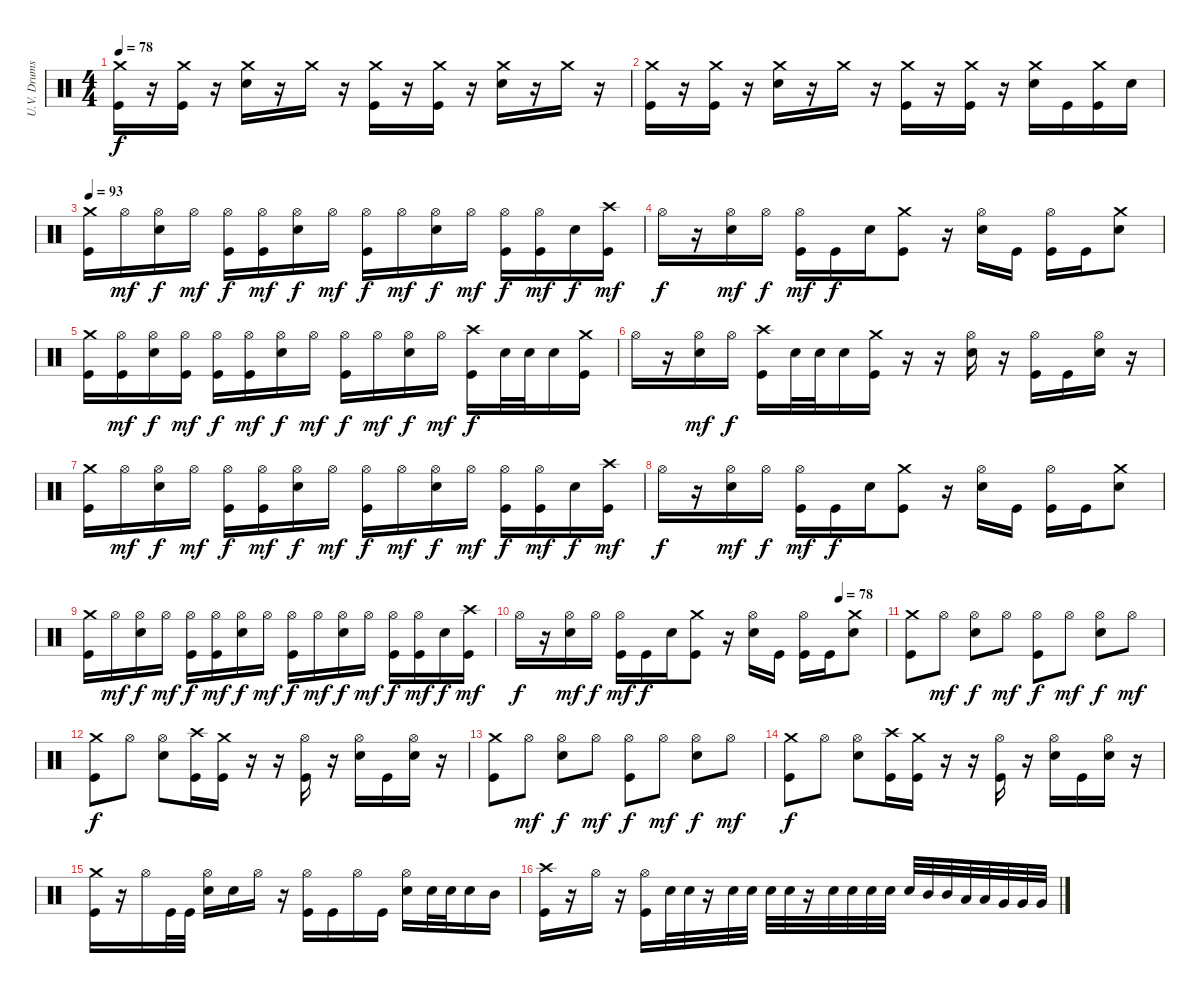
\track ("U.V. Drums" "U.V. Drums") {instrument percussion}
\staff {score}
\articulation defaults
\ts (4 4)
\tempo 78
\clef neutral
\ks c
("Crash medium (hit)" "Kick (hit)").16{dy f} r.16 ("Crash medium (hit)" "Kick (hit)").16 r.16 ("Crash medium (hit)" "Electric Snare (hit)").16 r.16 "Crash medium (hit)".16 r.16 ("Crash medium (hit)" "Kick (hit)").16 r.16 ("Crash medium (hit)" "Kick (hit)").16 r.16 ("Crash medium (hit)" "Electric Snare (hit)").16 r.16 "Crash medium (hit)".16 r.16 |
("Crash medium (hit)" "Kick (hit)").16 r.16 ("Crash medium (hit)" "Kick (hit)").16 r.16 ("Crash medium (hit)" "Electric Snare (hit)").16 r.16 "Crash medium (hit)".16 r.16 ("Crash medium (hit)" "Kick (hit)").16 r.16 ("Crash medium (hit)" "Kick (hit)").16 r.16 ("Crash medium (hit)" "Electric Snare (hit)").16 "Kick (hit)".16 ("Crash medium (hit)" "Kick (hit)").16 "Electric Snare (hit)".16 |
\tempo 93
("Crash medium (hit)" "Kick (hit)").16 "Hi-Hat (open)".16{dy mf} ("Hi-Hat (open)" "Electric Snare (hit)").16{dy f} "Hi-Hat (open)".16{dy mf} ("Hi-Hat (open)" "Kick (hit)").16{dy f} ("Hi-Hat (open)" "Kick (hit)").16{dy mf} ("Hi-Hat (open)" "Electric Snare (hit)").16{dy f} "Hi-Hat (open)".16{dy mf} ("Hi-Hat (open)" "Kick (hit)").16{dy f} "Hi-Hat (open)".16{dy mf} ("Hi-Hat (open)" "Electric Snare (hit)").16{dy f} "Hi-Hat (open)".16{dy mf} ("Hi-Hat (open)" "Kick (hit)").16{dy f} ("Hi-Hat (open)" "Kick (hit)").16{dy mf} "Electric Snare (hit)".16{dy f} ("Crash high (hit)" "Kick (hit)").16{dy mf} |
"Hi-Hat (open)".16{dy f} r.16 ("Hi-Hat (open)" "Electric Snare (hit)").16{dy mf} "Hi-Hat (open)".16{dy f} ("Hi-Hat (open)" "Kick (hit)").16{dy mf} "Kick (hit)".16{dy f} "Electric Snare (hit)".16 ("Crash medium (hit)" "Kick (hit)").8 r.16 ("Hi-Hat (open)" "Electric Snare (hit)").16 "Kick (hit)".16 ("Hi-Hat (open)" "Kick (hit)").16 "Kick (hit)".16 ("Crash medium (hit)" "Electric Snare (hit)").8 |
("Crash medium (hit)" "Kick (hit)").16 ("Hi-Hat (open)" "Kick (hit)").16{dy mf} ("Hi-Hat (open)" "Electric Snare (hit)").16{dy f} ("Hi-Hat (open)" "Kick (hit)").16{dy mf} ("Hi-Hat (open)" "Kick (hit)").16{dy f} ("Hi-Hat (open)" "Kick (hit)").16{dy mf} ("Hi-Hat (open)" "Electric Snare (hit)").16{dy f} "Hi-Hat (open)".16{dy mf} ("Hi-Hat (open)" "Kick (hit)").16{dy f} "Hi-Hat (open)".16{dy mf} ("Hi-Hat (open)" "Electric Snare (hit)").16{dy f} "Hi-Hat (open)".16{dy mf} ("Crash high (hit)" "Kick (hit)").16{dy f} "Electric Snare (hit)".32 "Electric Snare (hit)".32 "Electric Snare (hit)".16 ("Crash medium (hit)" "Kick (hit)").16 |
"Hi-Hat (open)".16 r.16 ("Hi-Hat (open)" "Electric Snare (hit)").16{dy mf} "Hi-Hat (open)".16{dy f} ("Crash high (hit)" "Kick (hit)").16 "Electric Snare (hit)".32 "Electric Snare (hit)".32 "Electric Snare (hit)".16 ("Crash medium (hit)" "Kick (hit)").16 r.16 r.16 ("Hi-Hat (open)" "Electric Snare (hit)").16 r.16 ("Hi-Hat (open)" "Kick (hit)").16 "Kick (hit)".16 ("Hi-Hat (open)" "Electric Snare (hit)").16 r.16 |
("Crash medium (hit)" "Kick (hit)").16 "Hi-Hat (open)".16{dy mf} ("Hi-Hat (open)" "Electric Snare (hit)").16{dy f} "Hi-Hat (open)".16{dy mf} ("Hi-Hat (open)" "Kick (hit)").16{dy f} ("Hi-Hat (open)" "Kick (hit)").16{dy mf} ("Hi-Hat (open)" "Electric Snare (hit)").16{dy f} "Hi-Hat (open)".16{dy mf} ("Hi-Hat (open)" "Kick (hit)").16{dy f} "Hi-Hat (open)".16{dy mf} ("Hi-Hat (open)" "Electric Snare (hit)").16{dy f} "Hi-Hat (open)".16{dy mf} ("Hi-Hat (open)" "Kick (hit)").16{dy f} ("Hi-Hat (open)" "Kick (hit)").16{dy mf} "Electric Snare (hit)".16{dy f} ("Crash high (hit)" "Kick (hit)").16{dy mf} |
"Hi-Hat (open)".16{dy f} r.16 ("Hi-Hat (open)" "Electric Snare (hit)").16{dy mf} "Hi-Hat (open)".16{dy f} ("Hi-Hat (open)" "Kick (hit)").16{dy mf} "Kick (hit)".16{dy f} "Electric Snare (hit)".16 ("Crash medium (hit)" "Kick (hit)").8 r.16 ("Hi-Hat (open)" "Electric Snare (hit)").16 "Kick (hit)".16 ("Hi-Hat (open)" "Kick (hit)").16 "Kick (hit)".16 ("Crash medium (hit)" "Electric Snare (hit)").8 |
("Crash medium (hit)" "Kick (hit)").16 "Hi-Hat (open)".16{dy mf} ("Hi-Hat (open)" "Electric Snare (hit)").16{dy f} "Hi-Hat (open)".16{dy mf} ("Hi-Hat (open)" "Kick (hit)").16{dy f} ("Hi-Hat (open)" "Kick (hit)").16{dy mf} ("Hi-Hat (open)" "Electric Snare (hit)").16{dy f} "Hi-Hat (open)".16{dy mf} ("Hi-Hat (open)" "Kick (hit)").16{dy f} "Hi-Hat (open)".16{dy mf} ("Hi-Hat (open)" "Electric Snare (hit)").16{dy f} "Hi-Hat (open)".16{dy mf} ("Hi-Hat (open)" "Kick (hit)").16{dy f} ("Hi-Hat (open)" "Kick (hit)").16{dy mf} "Electric Snare (hit)".16{dy f} ("Crash high (hit)" "Kick (hit)").16{dy mf} |
\tempo (78 0.875)
"Hi-Hat (open)".16{dy f} r.16 ("Hi-Hat (open)" "Electric Snare (hit)").16{dy mf} "Hi-Hat (open)".16{dy f} ("Hi-Hat (open)" "Kick (hit)").16{dy mf} "Kick (hit)".16{dy f} "Electric Snare (hit)".16 ("Crash medium (hit)" "Kick (hit)").8 r.16 ("Hi-Hat (open)" "Electric Snare (hit)").16 "Kick (hit)".16 ("Hi-Hat (open)" "Kick (hit)").16 "Kick (hit)".16 ("Crash medium (hit)" "Electric Snare (hit)").8 |
("Crash medium (hit)" "Kick (hit)").8 "Hi-Hat (open)".8{dy mf} ("Hi-Hat (open)" "Electric Snare (hit)").8{dy f} "Hi-Hat (open)".8{dy mf} ("Hi-Hat (open)" "Kick (hit)").8{dy f} "Hi-Hat (open)".8{dy mf} ("Hi-Hat (open)" "Electric Snare (hit)").8{dy f} "Hi-Hat (open)".8{dy mf} |
("Crash medium (hit)" "Kick (hit)").8{dy f} "Hi-Hat (open)".8 ("Hi-Hat (open)" "Electric Snare (hit)").8 ("Crash high (hit)" "Kick (hit)").16 ("Crash medium (hit)" "Kick (hit)").16 r.16 r.16 ("Hi-Hat (open)" "Kick (hit)").16 r.16 ("Hi-Hat (open)" "Electric Snare (hit)").16 "Kick (hit)".16 ("Hi-Hat (open)" "Electric Snare (hit)").16 r.16 |
("Crash medium (hit)" "Kick (hit)").8 "Hi-Hat (open)".8{dy mf} ("Hi-Hat (open)" "Electric Snare (hit)").8{dy f} "Hi-Hat (open)".8{dy mf} ("Hi-Hat (open)" "Kick (hit)").8{dy f} "Hi-Hat (open)".8{dy mf} ("Hi-Hat (open)" "Electric Snare (hit)").8{dy f} "Hi-Hat (open)".8{dy mf} |
("Crash medium (hit)" "Kick (hit)").8{dy f} "Hi-Hat (open)".8 ("Hi-Hat (open)" "Electric Snare (hit)").8 ("Crash high (hit)" "Kick (hit)").16 ("Crash medium (hit)" "Kick (hit)").16 r.16 r.16 ("Hi-Hat (open)" "Kick (hit)").16 r.16 ("Hi-Hat (open)" "Electric Snare (hit)").16 "Kick (hit)".16 ("Hi-Hat (open)" "Electric Snare (hit)").16 r.16 |
("Crash medium (hit)" "Kick (hit)").16 r.16 "Hi-Hat (open)".16 "Kick (hit)".32 "Kick (hit)".32 ("Hi-Hat (open)" "Electric Snare (hit)").16 "Electric Snare (hit)".16 "Hi-Hat (open)".16 r.16 ("Hi-Hat (open)" "Kick (hit)").16 "Kick (hit)".16 "Hi-Hat (open)".16 "Kick (hit)".16 ("Hi-Hat (open)" "Electric Snare (hit)").16 "Electric Snare (hit)".32 "Electric Snare (hit)".32 "Electric Snare (hit)".16 "Mid Tom (hit)".16 |
("Crash high (hit)" "Kick (hit)").16 r.16 "Hi-Hat (open)".16 r.16 ("Hi-Hat (open)" "Kick (hit)").16 "Electric Snare (hit)".32 "Electric Snare (hit)".32 r.16 "Electric Snare (hit)".32 "Electric Snare (hit)".32 "Electric Snare (hit)".32 "Electric Snare (hit)".32 r.16 "Electric Snare (hit)".32 "Electric Snare (hit)".32 "Electric Snare (hit)".32 "Electric Snare (hit)".32 "Electric Snare (hit)".32 "Mid Tom (hit)".32 "Mid Tom (hit)".32 "Low Tom (hit)".32 "Low Tom (hit)".32 "Very Low Tom (hit)".32 "Very Low Tom (hit)".32 "Very Low Tom (hit)".32
